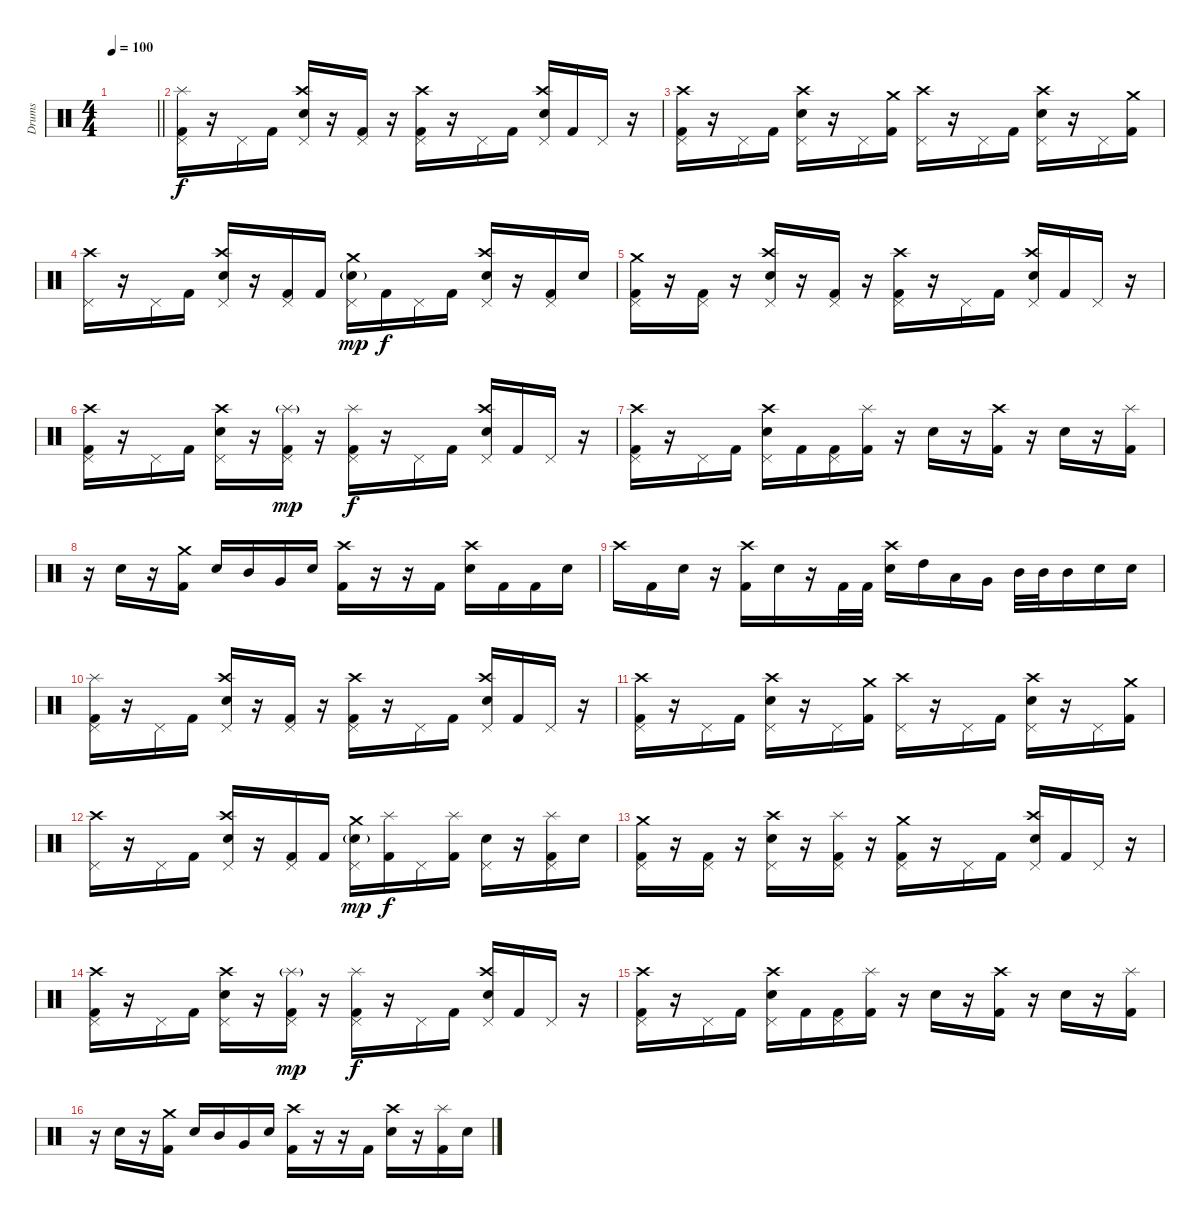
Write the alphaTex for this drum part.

\track ("Drums" "Drums") {instrument percussion}
\staff {score}
\articulation defaults
\ts (4 4)
\tempo 100
\clef neutral
\barLineRight lightlight
\ks c
|
\section ("" "")
("Splash (hit)" "Pedal Hi-Hat (hit)" "Kick (hit) 2").16 r.16 "Pedal Hi-Hat (hit)".16 "Kick (hit) 2".16 ("Crash high (hit)" "Pedal Hi-Hat (hit)" "Electric Snare (hit)").16 r.16 ("Pedal Hi-Hat (hit)" "Kick (hit) 2").16 r.16 ("Crash high (hit)" "Pedal Hi-Hat (hit)" "Kick (hit) 2").16 r.16 "Pedal Hi-Hat (hit)".16 "Kick (hit) 2".16 ("Crash high (hit)" "Pedal Hi-Hat (hit)" "Electric Snare (hit)").16 "Kick (hit) 2".16 "Pedal Hi-Hat (hit)".16 r.16 |
("Crash high (hit)" "Pedal Hi-Hat (hit)" "Kick (hit) 2").16 r.16 "Pedal Hi-Hat (hit)".16 "Kick (hit) 2".16 ("Crash high (hit)" "Pedal Hi-Hat (hit)" "Electric Snare (hit)").16 r.16 "Pedal Hi-Hat (hit)".16 ("Crash medium (hit)" "Kick (hit) 2").16 ("Crash high (hit)" "Pedal Hi-Hat (hit)").16 r.16 "Pedal Hi-Hat (hit)".16 "Kick (hit) 2".16 ("Crash high (hit)" "Pedal Hi-Hat (hit)" "Electric Snare (hit)").16 r.16 "Pedal Hi-Hat (hit)".16 ("Crash medium (hit)" "Kick (hit) 2").16 |
("Crash high (hit)" "Pedal Hi-Hat (hit)").16 r.16 "Pedal Hi-Hat (hit)".16 "Kick (hit) 2".16 ("Crash high (hit)" "Pedal Hi-Hat (hit)" "Electric Snare (hit)").16 r.16 ("Pedal Hi-Hat (hit)" "Kick (hit) 2").16 "Kick (hit) 2".16 ("Crash medium (hit)" "Pedal Hi-Hat (hit)" "Electric Snare (hit)"{g}).16{dy mp} "Kick (hit) 2".16{dy f} "Pedal Hi-Hat (hit)".16 "Kick (hit) 2".16 ("Crash high (hit)" "Pedal Hi-Hat (hit)" "Electric Snare (hit)").16 r.16 ("Pedal Hi-Hat (hit)" "Kick (hit) 2").16 "Electric Snare (hit)".16 |
("Crash medium (hit)" "Pedal Hi-Hat (hit)" "Kick (hit) 2").16 r.16 ("Pedal Hi-Hat (hit)" "Kick (hit) 2").16 r.16 ("Crash high (hit)" "Pedal Hi-Hat (hit)" "Electric Snare (hit)").16 r.16 ("Pedal Hi-Hat (hit)" "Kick (hit) 2").16 r.16 ("Crash high (hit)" "Pedal Hi-Hat (hit)" "Kick (hit) 2").16 r.16 "Pedal Hi-Hat (hit)".16 "Kick (hit) 2".16 ("Crash high (hit)" "Pedal Hi-Hat (hit)" "Electric Snare (hit)").16 "Kick (hit) 2".16 "Pedal Hi-Hat (hit)".16 r.16 |
("Crash high (hit)" "Pedal Hi-Hat (hit)" "Kick (hit) 2").16 r.16 "Pedal Hi-Hat (hit)".16 "Kick (hit) 2".16 ("Crash high (hit)" "Pedal Hi-Hat (hit)" "Electric Snare (hit)").16 r.16 ("Splash (hit)"{g} "Pedal Hi-Hat (hit)" "Kick (hit) 2").16{dy mp} r.16 ("Splash (hit)" "Pedal Hi-Hat (hit)" "Kick (hit) 2").16{dy f} r.16 "Pedal Hi-Hat (hit)".16 "Kick (hit) 2".16 ("Crash high (hit)" "Pedal Hi-Hat (hit)" "Electric Snare (hit)").16 "Kick (hit) 2".16 "Pedal Hi-Hat (hit)".16 r.16 |
("Crash high (hit)" "Pedal Hi-Hat (hit)" "Kick (hit) 2").16 r.16 "Pedal Hi-Hat (hit)".16 "Kick (hit) 2".16 ("Crash high (hit)" "Pedal Hi-Hat (hit)" "Electric Snare (hit)").16 "Kick (hit) 2".16 ("Pedal Hi-Hat (hit)" "Kick (hit) 2").16 ("Splash (hit)" "Kick (hit) 2").16 r.16 "Electric Snare (hit)".16 r.16 ("Crash high (hit)" "Kick (hit) 2").16 r.16 "Electric Snare (hit)".16 r.16 ("Splash (hit)" "Kick (hit) 2").16 |
r.16 "Electric Snare (hit)".16 r.16 ("Crash medium (hit)" "Kick (hit) 2").16 "Electric Snare (hit)".16 "Mid Tom (hit)".16 "Very Low Tom (hit)".16 "Electric Snare (hit)".16 ("Crash high (hit)" "Kick (hit) 2").16 r.16 r.16 "Kick (hit) 2".16 ("Crash high (hit)" "Electric Snare (hit)").16 "Kick (hit) 2".16 "Kick (hit) 2".16 "Electric Snare (hit)".16 |
"Crash high (hit)".16 "Kick (hit) 2".16 "Electric Snare (hit)".16 r.16 ("Crash high (hit)" "Kick (hit) 2").16 "Electric Snare (hit)".16 r.16 "Kick (hit) 2".32 "Kick (hit) 2".32 ("Crash high (hit)" "Electric Snare (hit)").16 "High Tom (hit)".16 "Low Tom (hit)".16 "Very Low Tom (hit)".16 "Mid Tom (hit)".32 "Mid Tom (hit)".32 "Mid Tom (hit)".16 "Electric Snare (hit)".16 "Electric Snare (hit)".16 |
("Splash (hit)" "Pedal Hi-Hat (hit)" "Kick (hit) 2").16 r.16 "Pedal Hi-Hat (hit)".16 "Kick (hit) 2".16 ("Crash high (hit)" "Pedal Hi-Hat (hit)" "Electric Snare (hit)").16 r.16 ("Pedal Hi-Hat (hit)" "Kick (hit) 2").16 r.16 ("Crash high (hit)" "Pedal Hi-Hat (hit)" "Kick (hit) 2").16 r.16 "Pedal Hi-Hat (hit)".16 "Kick (hit) 2".16 ("Crash high (hit)" "Pedal Hi-Hat (hit)" "Electric Snare (hit)").16 "Kick (hit) 2".16 "Pedal Hi-Hat (hit)".16 r.16 |
("Crash high (hit)" "Pedal Hi-Hat (hit)" "Kick (hit) 2").16 r.16 "Pedal Hi-Hat (hit)".16 "Kick (hit) 2".16 ("Crash high (hit)" "Pedal Hi-Hat (hit)" "Electric Snare (hit)").16 r.16 "Pedal Hi-Hat (hit)".16 ("Crash medium (hit)" "Kick (hit) 2").16 ("Crash high (hit)" "Pedal Hi-Hat (hit)").16 r.16 "Pedal Hi-Hat (hit)".16 "Kick (hit) 2".16 ("Crash high (hit)" "Pedal Hi-Hat (hit)" "Electric Snare (hit)").16 r.16 "Pedal Hi-Hat (hit)".16 ("Crash medium (hit)" "Kick (hit) 2").16 |
("Crash high (hit)" "Pedal Hi-Hat (hit)").16 r.16 "Pedal Hi-Hat (hit)".16 "Kick (hit) 2".16 ("Crash high (hit)" "Pedal Hi-Hat (hit)" "Electric Snare (hit)").16 r.16 ("Pedal Hi-Hat (hit)" "Kick (hit) 2").16 "Kick (hit) 2".16 ("Crash medium (hit)" "Pedal Hi-Hat (hit)" "Electric Snare (hit)"{g}).16{dy mp} ("Splash (hit)" "Kick (hit) 2").16{dy f} "Pedal Hi-Hat (hit)".16 ("Splash (hit)" "Kick (hit) 2").16 ("Pedal Hi-Hat (hit)" "Electric Snare (hit)").16 r.16 ("Splash (hit)" "Pedal Hi-Hat (hit)" "Kick (hit) 2").16 "Electric Snare (hit)".16 |
("Crash medium (hit)" "Pedal Hi-Hat (hit)" "Kick (hit) 2").16 r.16 ("Pedal Hi-Hat (hit)" "Kick (hit) 2").16 r.16 ("Crash high (hit)" "Pedal Hi-Hat (hit)" "Electric Snare (hit)").16 r.16 ("Splash (hit)" "Pedal Hi-Hat (hit)" "Kick (hit) 2").16 r.16 ("Crash medium (hit)" "Pedal Hi-Hat (hit)" "Kick (hit) 2").16 r.16 "Pedal Hi-Hat (hit)".16 "Kick (hit) 2".16 ("Crash high (hit)" "Pedal Hi-Hat (hit)" "Electric Snare (hit)").16 "Kick (hit) 2".16 "Pedal Hi-Hat (hit)".16 r.16 |
("Crash high (hit)" "Pedal Hi-Hat (hit)" "Kick (hit) 2").16 r.16 "Pedal Hi-Hat (hit)".16 "Kick (hit) 2".16 ("Crash high (hit)" "Pedal Hi-Hat (hit)" "Electric Snare (hit)").16 r.16 ("Splash (hit)"{g} "Pedal Hi-Hat (hit)" "Kick (hit) 2").16{dy mp} r.16 ("Splash (hit)" "Pedal Hi-Hat (hit)" "Kick (hit) 2").16{dy f} r.16 "Pedal Hi-Hat (hit)".16 "Kick (hit) 2".16 ("Crash high (hit)" "Pedal Hi-Hat (hit)" "Electric Snare (hit)").16 "Kick (hit) 2".16 "Pedal Hi-Hat (hit)".16 r.16 |
("Crash high (hit)" "Pedal Hi-Hat (hit)" "Kick (hit) 2").16 r.16 "Pedal Hi-Hat (hit)".16 "Kick (hit) 2".16 ("Crash high (hit)" "Pedal Hi-Hat (hit)" "Electric Snare (hit)").16 "Kick (hit) 2".16 ("Pedal Hi-Hat (hit)" "Kick (hit) 2").16 ("Splash (hit)" "Kick (hit) 2").16 r.16 "Electric Snare (hit)".16 r.16 ("Crash high (hit)" "Kick (hit) 2").16 r.16 "Electric Snare (hit)".16 r.16 ("Splash (hit)" "Kick (hit) 2").16 |
r.16 "Electric Snare (hit)".16 r.16 ("Crash medium (hit)" "Kick (hit) 2").16 "Electric Snare (hit)".16 "Mid Tom (hit)".16 "Very Low Tom (hit)".16 "Electric Snare (hit)".16 ("Crash high (hit)" "Kick (hit) 2").16 r.16 r.16 "Kick (hit) 2".16 ("Crash high (hit)" "Electric Snare (hit)").16 r.16 ("Splash (hit)" "Kick (hit) 2").16 "Electric Snare (hit)".16
